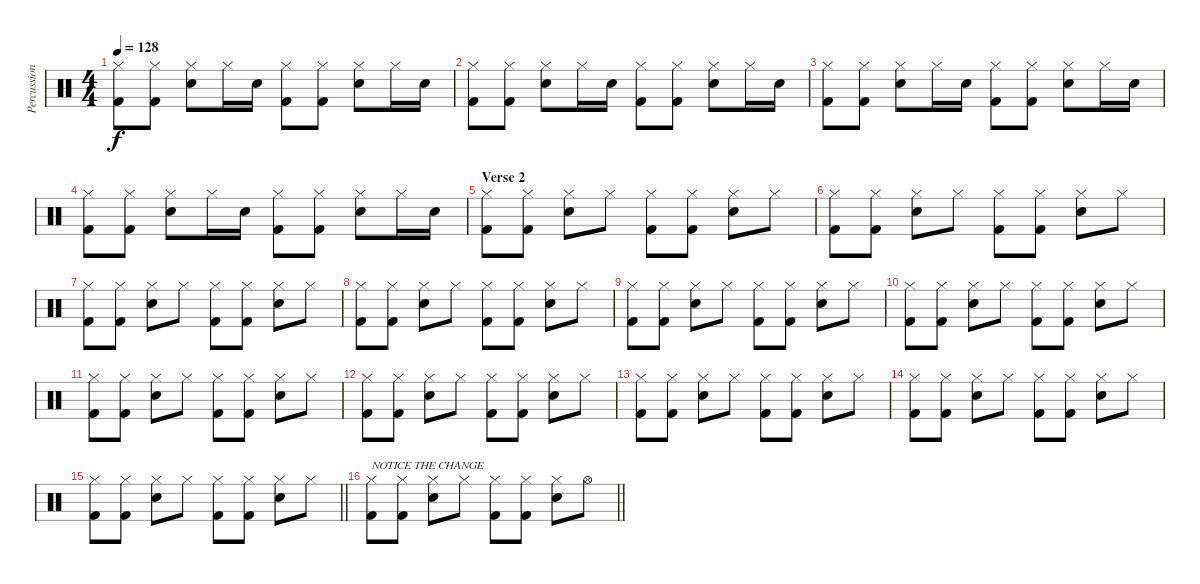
\track ("Percussion" "Percussion") {instrument percussion}
\staff {score}
\articulation defaults
\ts (4 4)
\tempo 128
\clef neutral
\ks c
("Hi-Hat (closed)" "Kick (hit) 2").8{dy f} ("Hi-Hat (closed)" "Kick (hit) 2").8 ("Hi-Hat (closed)" "Snare (hit) 2").8 "Hi-Hat (closed)".16 "Snare (hit) 2".16 ("Hi-Hat (closed)" "Kick (hit) 2").8 ("Hi-Hat (closed)" "Kick (hit) 2").8 ("Hi-Hat (closed)" "Snare (hit) 2").8 "Hi-Hat (closed)".16 "Snare (hit) 2".16 |
("Hi-Hat (closed)" "Kick (hit) 2").8 ("Hi-Hat (closed)" "Kick (hit) 2").8 ("Hi-Hat (closed)" "Snare (hit) 2").8 "Hi-Hat (closed)".16 "Snare (hit) 2".16 ("Hi-Hat (closed)" "Kick (hit) 2").8 ("Hi-Hat (closed)" "Kick (hit) 2").8 ("Hi-Hat (closed)" "Snare (hit) 2").8 "Hi-Hat (closed)".16 "Snare (hit) 2".16 |
("Hi-Hat (closed)" "Kick (hit) 2").8 ("Hi-Hat (closed)" "Kick (hit) 2").8 ("Hi-Hat (closed)" "Snare (hit) 2").8 "Hi-Hat (closed)".16 "Snare (hit) 2".16 ("Hi-Hat (closed)" "Kick (hit) 2").8 ("Hi-Hat (closed)" "Kick (hit) 2").8 ("Hi-Hat (closed)" "Snare (hit) 2").8 "Hi-Hat (closed)".16 "Snare (hit) 2".16 |
("Hi-Hat (closed)" "Kick (hit) 2").8 ("Hi-Hat (closed)" "Kick (hit) 2").8 ("Hi-Hat (closed)" "Snare (hit) 2").8 "Hi-Hat (closed)".16 "Snare (hit) 2".16 ("Hi-Hat (closed)" "Kick (hit) 2").8 ("Hi-Hat (closed)" "Kick (hit) 2").8 ("Hi-Hat (closed)" "Snare (hit) 2").8 "Hi-Hat (closed)".16 "Snare (hit) 2".16 |
\section ("" "Verse 2")
("Hi-Hat (closed)" "Kick (hit) 2").8 ("Hi-Hat (closed)" "Kick (hit) 2").8 ("Hi-Hat (closed)" "Snare (hit) 2").8 "Hi-Hat (closed)".8 ("Hi-Hat (closed)" "Kick (hit) 2").8 ("Hi-Hat (closed)" "Kick (hit) 2").8 ("Hi-Hat (closed)" "Snare (hit) 2").8 "Hi-Hat (closed)".8 |
("Hi-Hat (closed)" "Kick (hit) 2").8 ("Hi-Hat (closed)" "Kick (hit) 2").8 ("Hi-Hat (closed)" "Snare (hit) 2").8 "Hi-Hat (closed)".8 ("Hi-Hat (closed)" "Kick (hit) 2").8 ("Hi-Hat (closed)" "Kick (hit) 2").8 ("Hi-Hat (closed)" "Snare (hit) 2").8 "Hi-Hat (closed)".8 |
("Hi-Hat (closed)" "Kick (hit) 2").8 ("Hi-Hat (closed)" "Kick (hit) 2").8 ("Hi-Hat (closed)" "Snare (hit) 2").8 "Hi-Hat (closed)".8 ("Hi-Hat (closed)" "Kick (hit) 2").8 ("Hi-Hat (closed)" "Kick (hit) 2").8 ("Hi-Hat (closed)" "Snare (hit) 2").8 "Hi-Hat (closed)".8 |
("Hi-Hat (closed)" "Kick (hit) 2").8 ("Hi-Hat (closed)" "Kick (hit) 2").8 ("Hi-Hat (closed)" "Snare (hit) 2").8 "Hi-Hat (closed)".8 ("Hi-Hat (closed)" "Kick (hit) 2").8 ("Hi-Hat (closed)" "Kick (hit) 2").8 ("Hi-Hat (closed)" "Snare (hit) 2").8 "Hi-Hat (closed)".8 |
("Hi-Hat (closed)" "Kick (hit) 2").8 ("Hi-Hat (closed)" "Kick (hit) 2").8 ("Hi-Hat (closed)" "Snare (hit) 2").8 "Hi-Hat (closed)".8 ("Hi-Hat (closed)" "Kick (hit) 2").8 ("Hi-Hat (closed)" "Kick (hit) 2").8 ("Hi-Hat (closed)" "Snare (hit) 2").8 "Hi-Hat (closed)".8 |
("Hi-Hat (closed)" "Kick (hit) 2").8 ("Hi-Hat (closed)" "Kick (hit) 2").8 ("Hi-Hat (closed)" "Snare (hit) 2").8 "Hi-Hat (closed)".8 ("Hi-Hat (closed)" "Kick (hit) 2").8 ("Hi-Hat (closed)" "Kick (hit) 2").8 ("Hi-Hat (closed)" "Snare (hit) 2").8 "Hi-Hat (closed)".8 |
("Hi-Hat (closed)" "Kick (hit) 2").8 ("Hi-Hat (closed)" "Kick (hit) 2").8 ("Hi-Hat (closed)" "Snare (hit) 2").8 "Hi-Hat (closed)".8 ("Hi-Hat (closed)" "Kick (hit) 2").8 ("Hi-Hat (closed)" "Kick (hit) 2").8 ("Hi-Hat (closed)" "Snare (hit) 2").8 "Hi-Hat (closed)".8 |
("Hi-Hat (closed)" "Kick (hit) 2").8 ("Hi-Hat (closed)" "Kick (hit) 2").8 ("Hi-Hat (closed)" "Snare (hit) 2").8 "Hi-Hat (closed)".8 ("Hi-Hat (closed)" "Kick (hit) 2").8 ("Hi-Hat (closed)" "Kick (hit) 2").8 ("Hi-Hat (closed)" "Snare (hit) 2").8 "Hi-Hat (closed)".8 |
("Hi-Hat (closed)" "Kick (hit) 2").8 ("Hi-Hat (closed)" "Kick (hit) 2").8 ("Hi-Hat (closed)" "Snare (hit) 2").8 "Hi-Hat (closed)".8 ("Hi-Hat (closed)" "Kick (hit) 2").8 ("Hi-Hat (closed)" "Kick (hit) 2").8 ("Hi-Hat (closed)" "Snare (hit) 2").8 "Hi-Hat (closed)".8 |
("Hi-Hat (closed)" "Kick (hit) 2").8 ("Hi-Hat (closed)" "Kick (hit) 2").8 ("Hi-Hat (closed)" "Snare (hit) 2").8 "Hi-Hat (closed)".8 ("Hi-Hat (closed)" "Kick (hit) 2").8 ("Hi-Hat (closed)" "Kick (hit) 2").8 ("Hi-Hat (closed)" "Snare (hit) 2").8 "Hi-Hat (closed)".8 |
\barLineRight lightlight
("Hi-Hat (closed)" "Kick (hit) 2").8 ("Hi-Hat (closed)" "Kick (hit) 2").8 ("Hi-Hat (closed)" "Snare (hit) 2").8 "Hi-Hat (closed)".8 ("Hi-Hat (closed)" "Kick (hit) 2").8 ("Hi-Hat (closed)" "Kick (hit) 2").8 ("Hi-Hat (closed)" "Snare (hit) 2").8 "Hi-Hat (closed)".8 |
\barLineRight lightlight
("Hi-Hat (closed)" "Kick (hit) 2").8{txt "NOTICE THE CHANGE"} ("Hi-Hat (closed)" "Kick (hit) 2").8 ("Hi-Hat (closed)" "Snare (hit) 2").8 "Hi-Hat (closed)".8 ("Hi-Hat (closed)" "Kick (hit) 2").8 ("Hi-Hat (closed)" "Kick (hit) 2").8 ("Hi-Hat (closed)" "Snare (hit) 2").8 "Hi-Hat (open)".8
